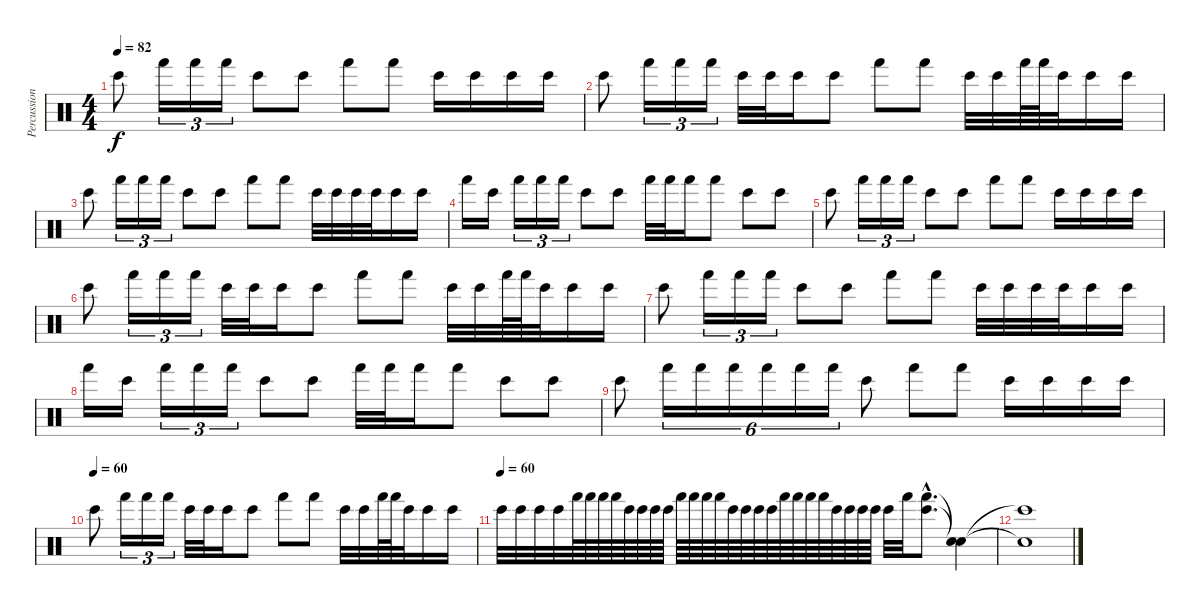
\track ("Percussion" "Percussion") {instrument percussion}
\staff {score}
\articulation defaults
\ts (4 4)
\tempo 82
\clef neutral
\ks c "Bongo High (hit)".8{dy f} "Hand (hit)".16{tu (3 2)} "Hand (hit)".16{tu (3 2)} "Hand (hit)".16{tu (3 2)} "Bongo High (hit)".8 "Bongo High (hit)".8 "Hand (hit)".8 "Hand (hit)".8 "Bongo High (hit)".16 "Bongo High (hit)".16 "Bongo High (hit)".16 "Bongo High (hit)".16
|
"Bongo High (hit)".8 "Hand (hit)".16{tu (3 2)} "Hand (hit)".16{tu (3 2)} "Hand (hit)".16{tu (3 2)} "Bongo High (hit)".32 "Bongo High (hit)".32 "Bongo High (hit)".16 "Bongo High (hit)".8 "Hand (hit)".8 "Hand (hit)".8 "Bongo High (hit)".32 "Bongo High (hit)".32 "Hand (hit)".64 "Hand (hit)".64 "Bongo High (hit)".32 "Bongo High (hit)".16 "Bongo High (hit)".16 |
"Bongo High (hit)".8 "Hand (hit)".16{tu (3 2)} "Hand (hit)".16{tu (3 2)} "Hand (hit)".16{tu (3 2)} "Bongo High (hit)".8 "Bongo High (hit)".8 "Hand (hit)".8 "Hand (hit)".8 "Bongo High (hit)".32 "Bongo High (hit)".32 "Bongo High (hit)".32 "Bongo High (hit)".32 "Bongo High (hit)".16 "Bongo High (hit)".16 |
"Hand (hit)".16 "Bongo High (hit)".16 "Hand (hit)".16{tu (3 2)} "Hand (hit)".16{tu (3 2)} "Hand (hit)".16{tu (3 2)} "Bongo High (hit)".8 "Bongo High (hit)".8 "Hand (hit)".32 "Hand (hit)".32 "Hand (hit)".16 "Hand (hit)".8 "Bongo High (hit)".8 "Bongo High (hit)".8 |
"Bongo High (hit)".8 "Hand (hit)".16{tu (3 2)} "Hand (hit)".16{tu (3 2)} "Hand (hit)".16{tu (3 2)} "Bongo High (hit)".8 "Bongo High (hit)".8 "Hand (hit)".8 "Hand (hit)".8 "Bongo High (hit)".16 "Bongo High (hit)".16 "Bongo High (hit)".16 "Bongo High (hit)".16 |
"Bongo High (hit)".8 "Hand (hit)".16{tu (3 2)} "Hand (hit)".16{tu (3 2)} "Hand (hit)".16{tu (3 2)} "Bongo High (hit)".32 "Bongo High (hit)".32 "Bongo High (hit)".16 "Bongo High (hit)".8 "Hand (hit)".8 "Hand (hit)".8 "Bongo High (hit)".32 "Bongo High (hit)".32 "Hand (hit)".64 "Hand (hit)".64 "Bongo High (hit)".32 "Bongo High (hit)".16 "Bongo High (hit)".16 |
\section ("" "")
"Bongo High (hit)".8 "Hand (hit)".16{tu (3 2)} "Hand (hit)".16{tu (3 2)} "Hand (hit)".16{tu (3 2)} "Bongo High (hit)".8 "Bongo High (hit)".8 "Hand (hit)".8 "Hand (hit)".8 "Bongo High (hit)".32 "Bongo High (hit)".32 "Bongo High (hit)".32 "Bongo High (hit)".32 "Bongo High (hit)".16 "Bongo High (hit)".16 |
"Hand (hit)".16 "Bongo High (hit)".16 "Hand (hit)".16{tu (3 2)} "Hand (hit)".16{tu (3 2)} "Hand (hit)".16{tu (3 2)} "Bongo High (hit)".8 "Bongo High (hit)".8 "Hand (hit)".32 "Hand (hit)".32 "Hand (hit)".16 "Hand (hit)".8 "Bongo High (hit)".8 "Bongo High (hit)".8 |
"Bongo High (hit)".8 "Hand (hit)".16{tu (6 4)} "Hand (hit)".16{tu (6 4)} "Hand (hit)".16{tu (6 4)} "Hand (hit)".16{tu (6 4)} "Hand (hit)".16{tu (6 4)} "Hand (hit)".16{tu (6 4)} "Bongo High (hit)".8 "Hand (hit)".8 "Hand (hit)".8 "Bongo High (hit)".16 "Bongo High (hit)".16 "Bongo High (hit)".16 "Bongo High (hit)".16 |
\tempo (60)
"Bongo High (hit)".8 "Hand (hit)".16{tu (3 2)} "Hand (hit)".16{tu (3 2)} "Hand (hit)".16{tu (3 2)} "Bongo High (hit)".32 "Bongo High (hit)".32 "Bongo High (hit)".16 "Bongo High (hit)".8 "Hand (hit)".8 "Hand (hit)".8 "Bongo High (hit)".32 "Bongo High (hit)".32 "Hand (hit)".64 "Hand (hit)".64 "Bongo High (hit)".32 "Bongo High (hit)".16 "Bongo High (hit)".16 |
\section ("" "")
\tempo (60)
"Bongo High (hit)".32 "Bongo High (hit)".32 "Bongo High (hit)".32 "Bongo High (hit)".32 "Hand (hit)".64 "Hand (hit)".64 "Hand (hit)".64 "Hand (hit)".64 "Bongo High (hit)".64 "Bongo High (hit)".64 "Bongo High (hit)".64 "Bongo High (hit)".64 "Hand (hit)".64 "Hand (hit)".64 "Hand (hit)".64 "Hand (hit)".64 "Bongo High (hit)".64 "Bongo High (hit)".64 "Bongo High (hit)".64 "Bongo High (hit)".64 "Hand (hit)".64 "Hand (hit)".64 "Hand (hit)".64 "Hand (hit)".64 "Bongo High (hit)".64 "Bongo High (hit)".64 "Bongo High (hit)".64 "Bongo High (hit)".64 "Bongo High (hit)".32 "Hand (hit)".32 ("Bongo High (hit)"{hac} "Hand (hit)"{hac}).8{d} ("Snare (hit)"{t} "Snare (hit)"{t}).4 |
("Bongo High (hit)"{t} "Snare (hit)"{t}).1
